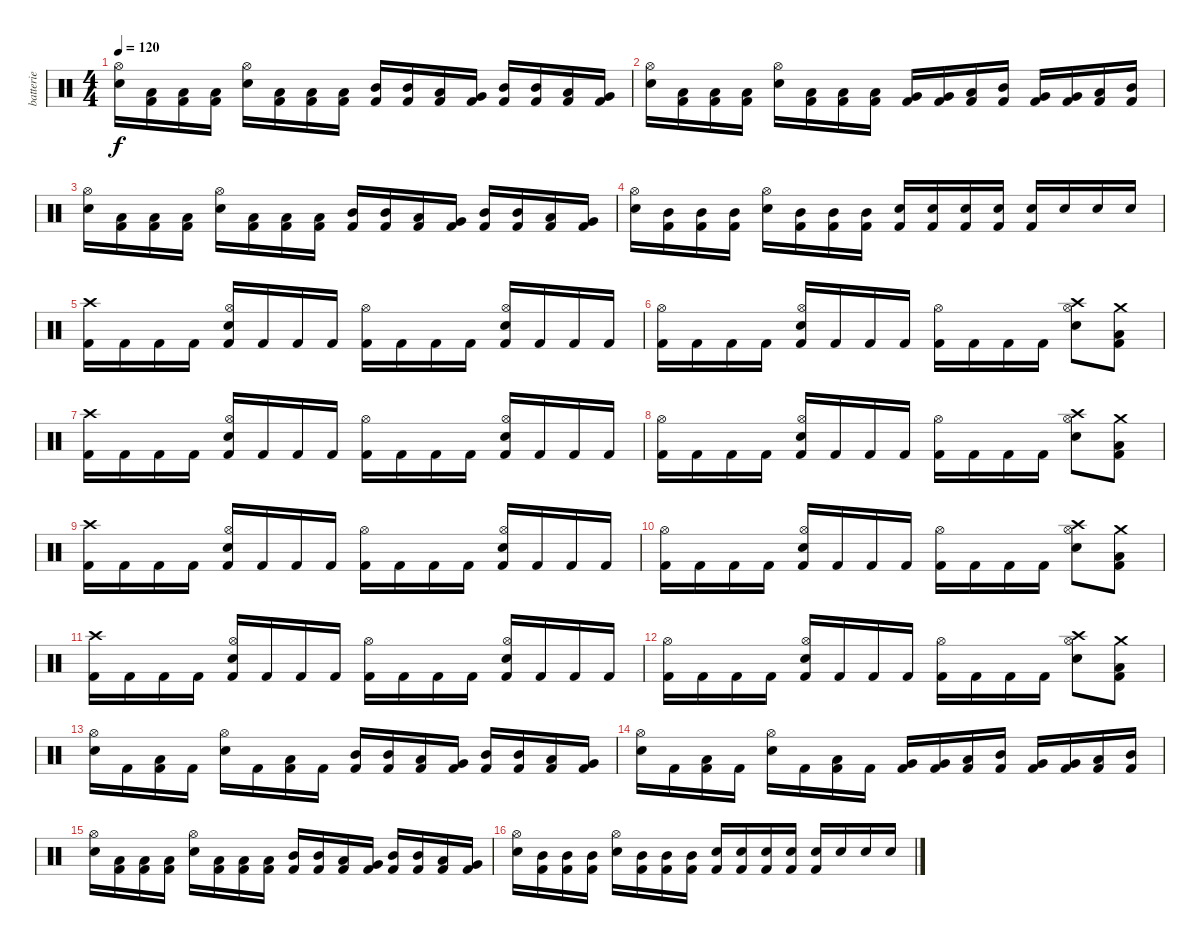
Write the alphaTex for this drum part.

\track ("batterie" "batterie") {instrument percussion}
\staff {score}
\articulation defaults
\ts (4 4)
\tempo 120
\clef neutral
\ks c
("Snare (hit) 2" "Hi-Hat (open)").16{dy f} ("Low Tom (hit)" "Kick (hit) 2").16 ("Low Tom (hit)" "Kick (hit) 2").16 ("Low Tom (hit)" "Kick (hit) 2").16 ("Snare (hit) 2" "Hi-Hat (open)").16 ("Low Tom (hit)" "Kick (hit) 2").16 ("Low Tom (hit)" "Kick (hit) 2").16 ("Low Tom (hit)" "Kick (hit) 2").16 ("Mid Tom (hit)" "Kick (hit) 2").16 ("Mid Tom (hit)" "Kick (hit) 2").16 ("Low Tom (hit)" "Kick (hit) 2").16 ("Very Low Tom (hit)" "Kick (hit) 2").16 ("Mid Tom (hit)" "Kick (hit) 2").16 ("Mid Tom (hit)" "Kick (hit) 2").16 ("Low Tom (hit)" "Kick (hit) 2").16 ("Very Low Tom (hit)" "Kick (hit) 2").16 |
("Snare (hit) 2" "Hi-Hat (open)").16 ("Low Tom (hit)" "Kick (hit) 2").16 ("Low Tom (hit)" "Kick (hit) 2").16 ("Low Tom (hit)" "Kick (hit) 2").16 ("Snare (hit) 2" "Hi-Hat (open)").16 ("Low Tom (hit)" "Kick (hit) 2").16 ("Low Tom (hit)" "Kick (hit) 2").16 ("Low Tom (hit)" "Kick (hit) 2").16 ("Very Low Tom (hit)" "Kick (hit) 2").16 ("Very Low Tom (hit)" "Kick (hit) 2").16 ("Low Tom (hit)" "Kick (hit) 2").16 ("Mid Tom (hit)" "Kick (hit) 2").16 ("Very Low Tom (hit)" "Kick (hit) 2").16 ("Very Low Tom (hit)" "Kick (hit) 2").16 ("Low Tom (hit)" "Kick (hit) 2").16 ("Mid Tom (hit)" "Kick (hit) 2").16 |
("Snare (hit) 2" "Hi-Hat (open)").16 ("Low Tom (hit)" "Kick (hit) 2").16 ("Low Tom (hit)" "Kick (hit) 2").16 ("Low Tom (hit)" "Kick (hit) 2").16 ("Snare (hit) 2" "Hi-Hat (open)").16 ("Low Tom (hit)" "Kick (hit) 2").16 ("Low Tom (hit)" "Kick (hit) 2").16 ("Low Tom (hit)" "Kick (hit) 2").16 ("Mid Tom (hit)" "Kick (hit) 2").16 ("Mid Tom (hit)" "Kick (hit) 2").16 ("Low Tom (hit)" "Kick (hit) 2").16 ("Very Low Tom (hit)" "Kick (hit) 2").16 ("Mid Tom (hit)" "Kick (hit) 2").16 ("Mid Tom (hit)" "Kick (hit) 2").16 ("Low Tom (hit)" "Kick (hit) 2").16 ("Very Low Tom (hit)" "Kick (hit) 2").16 |
("Snare (hit) 2" "Hi-Hat (open)").16 ("Mid Tom (hit)" "Kick (hit) 2").16 ("Mid Tom (hit)" "Kick (hit) 2").16 ("Mid Tom (hit)" "Kick (hit) 2").16 ("Snare (hit) 2" "Hi-Hat (open)").16 ("Mid Tom (hit)" "Kick (hit) 2").16 ("Mid Tom (hit)" "Kick (hit) 2").16 ("Mid Tom (hit)" "Kick (hit) 2").16 ("Snare (hit) 2" "Kick (hit) 2").16 ("Snare (hit) 2" "Kick (hit) 2").16 ("Snare (hit) 2" "Kick (hit) 2").16 ("Snare (hit) 2" "Kick (hit) 2").16 ("Snare (hit) 2" "Kick (hit) 2").16 "Snare (hit) 2".16 "Snare (hit) 2".16 "Snare (hit) 2".16 |
("Crash high (hit)" "Kick (hit) 2").16 "Kick (hit) 2".16 "Kick (hit) 2".16 "Kick (hit) 2".16 ("Snare (hit) 2" "Kick (hit) 2" "Hi-Hat (open)").16 "Kick (hit) 2".16 "Kick (hit) 2".16 "Kick (hit) 2".16 ("Kick (hit) 2" "Hi-Hat (open)").16 "Kick (hit) 2".16 "Kick (hit) 2".16 "Kick (hit) 2".16 ("Snare (hit) 2" "Kick (hit) 2" "Hi-Hat (open)").16 "Kick (hit) 2".16 "Kick (hit) 2".16 "Kick (hit) 2".16 |
("Kick (hit) 2" "Hi-Hat (open)").16 "Kick (hit) 2".16 "Kick (hit) 2".16 "Kick (hit) 2".16 ("Snare (hit) 2" "Kick (hit) 2" "Hi-Hat (open)").16 "Kick (hit) 2".16 "Kick (hit) 2".16 "Kick (hit) 2".16 ("Kick (hit) 2" "Hi-Hat (open)").16 "Kick (hit) 2".16 "Kick (hit) 2".16 "Kick (hit) 2".16 ("Crash high (hit)" "Snare (hit) 2" "Hi-Hat (open)").8 ("Crash medium (hit)" "Low Tom (hit)" "Kick (hit) 2").8 |
("Crash high (hit)" "Kick (hit) 2").16 "Kick (hit) 2".16 "Kick (hit) 2".16 "Kick (hit) 2".16 ("Snare (hit) 2" "Kick (hit) 2" "Hi-Hat (open)").16 "Kick (hit) 2".16 "Kick (hit) 2".16 "Kick (hit) 2".16 ("Kick (hit) 2" "Hi-Hat (open)").16 "Kick (hit) 2".16 "Kick (hit) 2".16 "Kick (hit) 2".16 ("Snare (hit) 2" "Kick (hit) 2" "Hi-Hat (open)").16 "Kick (hit) 2".16 "Kick (hit) 2".16 "Kick (hit) 2".16 |
("Kick (hit) 2" "Hi-Hat (open)").16 "Kick (hit) 2".16 "Kick (hit) 2".16 "Kick (hit) 2".16 ("Snare (hit) 2" "Kick (hit) 2" "Hi-Hat (open)").16 "Kick (hit) 2".16 "Kick (hit) 2".16 "Kick (hit) 2".16 ("Kick (hit) 2" "Hi-Hat (open)").16 "Kick (hit) 2".16 "Kick (hit) 2".16 "Kick (hit) 2".16 ("Crash high (hit)" "Snare (hit) 2" "Hi-Hat (open)").8 ("Crash medium (hit)" "Low Tom (hit)" "Kick (hit) 2").8 |
("Crash high (hit)" "Kick (hit) 2").16 "Kick (hit) 2".16 "Kick (hit) 2".16 "Kick (hit) 2".16 ("Snare (hit) 2" "Kick (hit) 2" "Hi-Hat (open)").16 "Kick (hit) 2".16 "Kick (hit) 2".16 "Kick (hit) 2".16 ("Kick (hit) 2" "Hi-Hat (open)").16 "Kick (hit) 2".16 "Kick (hit) 2".16 "Kick (hit) 2".16 ("Snare (hit) 2" "Kick (hit) 2" "Hi-Hat (open)").16 "Kick (hit) 2".16 "Kick (hit) 2".16 "Kick (hit) 2".16 |
("Kick (hit) 2" "Hi-Hat (open)").16 "Kick (hit) 2".16 "Kick (hit) 2".16 "Kick (hit) 2".16 ("Snare (hit) 2" "Kick (hit) 2" "Hi-Hat (open)").16 "Kick (hit) 2".16 "Kick (hit) 2".16 "Kick (hit) 2".16 ("Kick (hit) 2" "Hi-Hat (open)").16 "Kick (hit) 2".16 "Kick (hit) 2".16 "Kick (hit) 2".16 ("Crash high (hit)" "Snare (hit) 2" "Hi-Hat (open)").8 ("Crash medium (hit)" "Low Tom (hit)" "Kick (hit) 2").8 |
("Crash high (hit)" "Kick (hit) 2").16 "Kick (hit) 2".16 "Kick (hit) 2".16 "Kick (hit) 2".16 ("Snare (hit) 2" "Kick (hit) 2" "Hi-Hat (open)").16 "Kick (hit) 2".16 "Kick (hit) 2".16 "Kick (hit) 2".16 ("Kick (hit) 2" "Hi-Hat (open)").16 "Kick (hit) 2".16 "Kick (hit) 2".16 "Kick (hit) 2".16 ("Snare (hit) 2" "Kick (hit) 2" "Hi-Hat (open)").16 "Kick (hit) 2".16 "Kick (hit) 2".16 "Kick (hit) 2".16 |
("Kick (hit) 2" "Hi-Hat (open)").16 "Kick (hit) 2".16 "Kick (hit) 2".16 "Kick (hit) 2".16 ("Snare (hit) 2" "Kick (hit) 2" "Hi-Hat (open)").16 "Kick (hit) 2".16 "Kick (hit) 2".16 "Kick (hit) 2".16 ("Kick (hit) 2" "Hi-Hat (open)").16 "Kick (hit) 2".16 "Kick (hit) 2".16 "Kick (hit) 2".16 ("Crash high (hit)" "Snare (hit) 2" "Hi-Hat (open)").8 ("Crash medium (hit)" "Low Tom (hit)" "Kick (hit) 2").8 |
("Snare (hit) 2" "Hi-Hat (open)").16 "Kick (hit) 2".16 ("Low Tom (hit)" "Kick (hit) 2").16 "Kick (hit) 2".16 ("Snare (hit) 2" "Hi-Hat (open)").16 "Kick (hit) 2".16 ("Low Tom (hit)" "Kick (hit) 2").16 "Kick (hit) 2".16 ("Mid Tom (hit)" "Kick (hit) 2").16 ("Mid Tom (hit)" "Kick (hit) 2").16 ("Low Tom (hit)" "Kick (hit) 2").16 ("Very Low Tom (hit)" "Kick (hit) 2").16 ("Mid Tom (hit)" "Kick (hit) 2").16 ("Mid Tom (hit)" "Kick (hit) 2").16 ("Low Tom (hit)" "Kick (hit) 2").16 ("Very Low Tom (hit)" "Kick (hit) 2").16 |
("Snare (hit) 2" "Hi-Hat (open)").16 "Kick (hit) 2".16 ("Low Tom (hit)" "Kick (hit) 2").16 "Kick (hit) 2".16 ("Snare (hit) 2" "Hi-Hat (open)").16 "Kick (hit) 2".16 ("Low Tom (hit)" "Kick (hit) 2").16 "Kick (hit) 2".16 ("Very Low Tom (hit)" "Kick (hit) 2").16 ("Very Low Tom (hit)" "Kick (hit) 2").16 ("Low Tom (hit)" "Kick (hit) 2").16 ("Mid Tom (hit)" "Kick (hit) 2").16 ("Very Low Tom (hit)" "Kick (hit) 2").16 ("Very Low Tom (hit)" "Kick (hit) 2").16 ("Low Tom (hit)" "Kick (hit) 2").16 ("Mid Tom (hit)" "Kick (hit) 2").16 |
("Snare (hit) 2" "Hi-Hat (open)").16 ("Low Tom (hit)" "Kick (hit) 2").16 ("Low Tom (hit)" "Kick (hit) 2").16 ("Low Tom (hit)" "Kick (hit) 2").16 ("Snare (hit) 2" "Hi-Hat (open)").16 ("Low Tom (hit)" "Kick (hit) 2").16 ("Low Tom (hit)" "Kick (hit) 2").16 ("Low Tom (hit)" "Kick (hit) 2").16 ("Mid Tom (hit)" "Kick (hit) 2").16 ("Mid Tom (hit)" "Kick (hit) 2").16 ("Low Tom (hit)" "Kick (hit) 2").16 ("Very Low Tom (hit)" "Kick (hit) 2").16 ("Mid Tom (hit)" "Kick (hit) 2").16 ("Mid Tom (hit)" "Kick (hit) 2").16 ("Low Tom (hit)" "Kick (hit) 2").16 ("Very Low Tom (hit)" "Kick (hit) 2").16 |
("Snare (hit) 2" "Hi-Hat (open)").16 ("Mid Tom (hit)" "Kick (hit) 2").16 ("Mid Tom (hit)" "Kick (hit) 2").16 ("Mid Tom (hit)" "Kick (hit) 2").16 ("Snare (hit) 2" "Hi-Hat (open)").16 ("Mid Tom (hit)" "Kick (hit) 2").16 ("Mid Tom (hit)" "Kick (hit) 2").16 ("Mid Tom (hit)" "Kick (hit) 2").16 ("Snare (hit) 2" "Kick (hit) 2").16 ("Snare (hit) 2" "Kick (hit) 2").16 ("Snare (hit) 2" "Kick (hit) 2").16 ("Snare (hit) 2" "Kick (hit) 2").16 ("Snare (hit) 2" "Kick (hit) 2").16 "Snare (hit) 2".16 "Snare (hit) 2".16 "Snare (hit) 2".16
